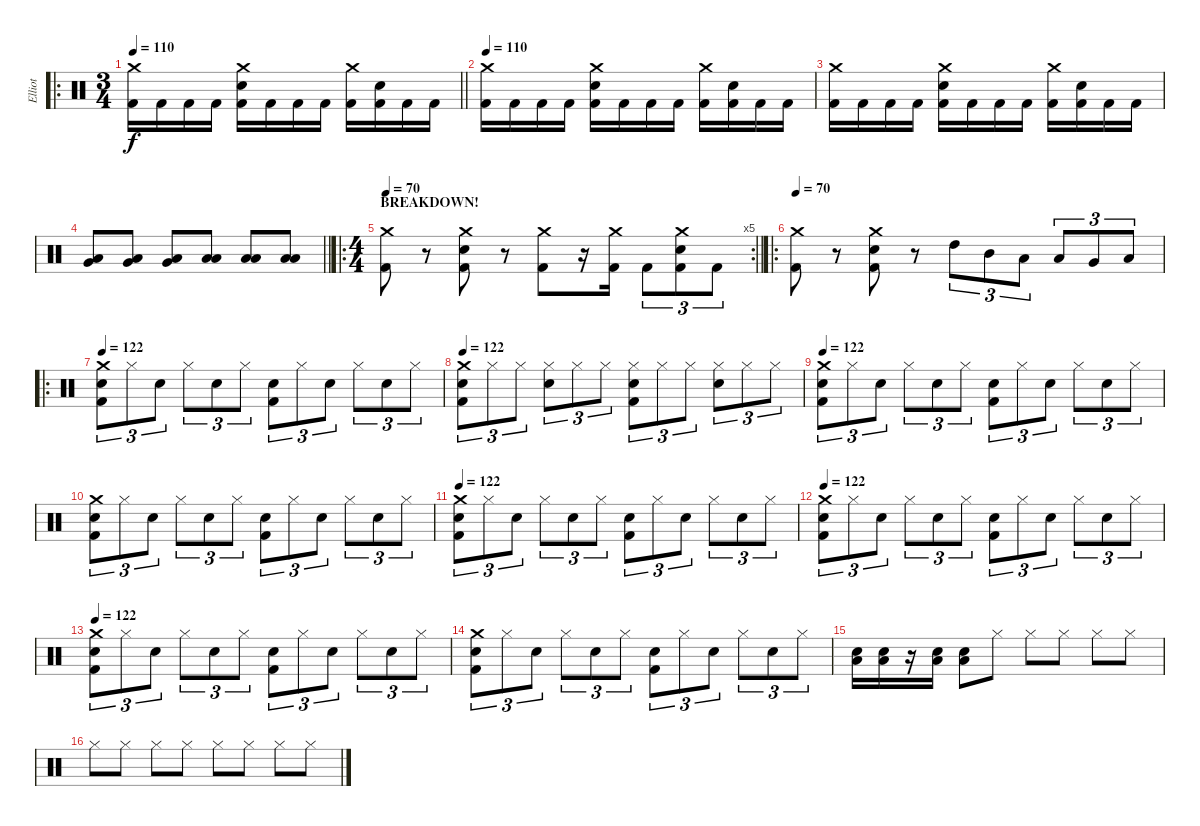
\track ("Elliot" "Elliot") {instrument percussion}
\staff {score}
\articulation defaults
\ro
\ts (3 4)
\section ("" "")
\tempo 110
\clef neutral
\barLineRight lightlight
\ks c
("Crash medium (hit)" "Kick (hit) 2").16{dy f} "Kick (hit) 2".16 "Kick (hit) 2".16 "Kick (hit) 2".16 ("Crash medium (hit)" "Electric Snare (hit)" "Kick (hit) 2").16 "Kick (hit) 2".16 "Kick (hit) 2".16 "Kick (hit) 2".16 ("Crash medium (hit)" "Kick (hit) 2").16 ("Electric Snare (hit)" "Kick (hit) 2").16 "Kick (hit) 2".16 "Kick (hit) 2".16 |
\tempo 110
("Crash medium (hit)" "Kick (hit) 2").16 "Kick (hit) 2".16 "Kick (hit) 2".16 "Kick (hit) 2".16 ("Crash medium (hit)" "Electric Snare (hit)" "Kick (hit) 2").16 "Kick (hit) 2".16 "Kick (hit) 2".16 "Kick (hit) 2".16 ("Crash medium (hit)" "Kick (hit) 2").16 ("Electric Snare (hit)" "Kick (hit) 2").16 "Kick (hit) 2".16 "Kick (hit) 2".16 |
("Crash medium (hit)" "Kick (hit) 2").16 "Kick (hit) 2".16 "Kick (hit) 2".16 "Kick (hit) 2".16 ("Crash medium (hit)" "Electric Snare (hit)" "Kick (hit) 2").16 "Kick (hit) 2".16 "Kick (hit) 2".16 "Kick (hit) 2".16 ("Crash medium (hit)" "Kick (hit) 2").16 ("Electric Snare (hit)" "Kick (hit) 2").16 "Kick (hit) 2".16 "Kick (hit) 2".16 |
\barLineRight lightlight
("Low Tom (hit)" "Very Low Tom (hit)").8 ("Low Tom (hit)" "Very Low Tom (hit)").8 ("Low Tom (hit)" "Very Low Tom (hit)").8 ("Low Tom (hit)" "Low Floor Tom (hit)").8 ("Low Tom (hit)" "Low Floor Tom (hit)").8 ("Low Tom (hit)" "Low Floor Tom (hit)").8 |
\ro
\rc 5
\ts (4 4)
\section ("" "BREAKDOWN!")
\tempo 70
\barLineRight lightlight
("Crash medium (hit)" "Kick (hit) 2").8 r.8 ("Crash medium (hit)" "Electric Snare (hit)" "Kick (hit) 2").8 r.8 ("Crash medium (hit)" "Kick (hit) 2").8 r.16 ("Crash medium (hit)" "Kick (hit) 2").16 "Kick (hit) 2".8{tu (3 2)} ("Crash medium (hit)" "Electric Snare (hit)" "Kick (hit) 2").8{tu (3 2)} "Kick (hit) 2".8{tu (3 2)} |
\ro
\tempo 70
("Crash medium (hit)" "Kick (hit) 2").8 r.8 ("Crash medium (hit)" "Electric Snare (hit)" "Kick (hit) 2").8 r.8 "High Tom (hit)".8{tu (3 2)} "Mid Tom (hit)".8{tu (3 2)} "Low Tom (hit)".8{tu (3 2)} "Low Floor Tom (hit)".8{tu (3 2)} "Very Low Tom (hit)".8{tu (3 2)} "Low Tom (hit)".8{tu (3 2)} |
\ro
\tempo 122
("Crash medium (hit)" "Electric Snare (hit)" "Kick (hit) 2").8{tu (3 2)} "Hi-Hat (closed)".8{tu (3 2)} "Electric Snare (hit)".8{tu (3 2)} "Hi-Hat (closed)".8{tu (3 2)} "Electric Snare (hit)".8{tu (3 2)} "Hi-Hat (closed)".8{tu (3 2)} ("Electric Snare (hit)" "Kick (hit) 2").8{tu (3 2)} "Hi-Hat (closed)".8{tu (3 2)} "Electric Snare (hit)".8{tu (3 2)} "Hi-Hat (closed)".8{tu (3 2)} "Electric Snare (hit)".8{tu (3 2)} "Hi-Hat (closed)".8{tu (3 2)} |
\tempo 122
("Crash medium (hit)" "Electric Snare (hit)" "Kick (hit) 2").8{tu (3 2)} "Hi-Hat (closed)".8{tu (3 2)} "Hi-Hat (closed)".8{tu (3 2)} ("Hi-Hat (closed)" "Electric Snare (hit)").8{tu (3 2)} "Hi-Hat (closed)".8{tu (3 2)} "Hi-Hat (closed)".8{tu (3 2)} ("Hi-Hat (closed)" "Electric Snare (hit)" "Kick (hit) 2").8{tu (3 2)} "Hi-Hat (closed)".8{tu (3 2)} "Hi-Hat (closed)".8{tu (3 2)} ("Hi-Hat (closed)" "Electric Snare (hit)").8{tu (3 2)} "Hi-Hat (closed)".8{tu (3 2)} "Hi-Hat (closed)".8{tu (3 2)} |
\tempo 122
("Crash medium (hit)" "Electric Snare (hit)" "Kick (hit) 2").8{tu (3 2)} "Hi-Hat (closed)".8{tu (3 2)} "Electric Snare (hit)".8{tu (3 2)} "Hi-Hat (closed)".8{tu (3 2)} "Electric Snare (hit)".8{tu (3 2)} "Hi-Hat (closed)".8{tu (3 2)} ("Electric Snare (hit)" "Kick (hit) 2").8{tu (3 2)} "Hi-Hat (closed)".8{tu (3 2)} "Electric Snare (hit)".8{tu (3 2)} "Hi-Hat (closed)".8{tu (3 2)} "Electric Snare (hit)".8{tu (3 2)} "Hi-Hat (closed)".8{tu (3 2)} |
("Crash medium (hit)" "Electric Snare (hit)" "Kick (hit) 2").8{tu (3 2)} "Hi-Hat (closed)".8{tu (3 2)} "Electric Snare (hit)".8{tu (3 2)} "Hi-Hat (closed)".8{tu (3 2)} "Electric Snare (hit)".8{tu (3 2)} "Hi-Hat (closed)".8{tu (3 2)} ("Electric Snare (hit)" "Kick (hit) 2").8{tu (3 2)} "Hi-Hat (closed)".8{tu (3 2)} "Electric Snare (hit)".8{tu (3 2)} "Hi-Hat (closed)".8{tu (3 2)} "Electric Snare (hit)".8{tu (3 2)} "Hi-Hat (closed)".8{tu (3 2)} |
\tempo 122
("Crash medium (hit)" "Electric Snare (hit)" "Kick (hit) 2").8{tu (3 2)} "Hi-Hat (closed)".8{tu (3 2)} "Electric Snare (hit)".8{tu (3 2)} "Hi-Hat (closed)".8{tu (3 2)} "Electric Snare (hit)".8{tu (3 2)} "Hi-Hat (closed)".8{tu (3 2)} ("Electric Snare (hit)" "Kick (hit) 2").8{tu (3 2)} "Hi-Hat (closed)".8{tu (3 2)} "Electric Snare (hit)".8{tu (3 2)} "Hi-Hat (closed)".8{tu (3 2)} "Electric Snare (hit)".8{tu (3 2)} "Hi-Hat (closed)".8{tu (3 2)} |
\tempo 122
("Crash medium (hit)" "Electric Snare (hit)" "Kick (hit) 2").8{tu (3 2)} "Hi-Hat (closed)".8{tu (3 2)} "Electric Snare (hit)".8{tu (3 2)} "Hi-Hat (closed)".8{tu (3 2)} "Electric Snare (hit)".8{tu (3 2)} "Hi-Hat (closed)".8{tu (3 2)} ("Electric Snare (hit)" "Kick (hit) 2").8{tu (3 2)} "Hi-Hat (closed)".8{tu (3 2)} "Electric Snare (hit)".8{tu (3 2)} "Hi-Hat (closed)".8{tu (3 2)} "Electric Snare (hit)".8{tu (3 2)} "Hi-Hat (closed)".8{tu (3 2)} |
\tempo 122
("Crash medium (hit)" "Electric Snare (hit)" "Kick (hit) 2").8{tu (3 2)} "Hi-Hat (closed)".8{tu (3 2)} "Electric Snare (hit)".8{tu (3 2)} "Hi-Hat (closed)".8{tu (3 2)} "Electric Snare (hit)".8{tu (3 2)} "Hi-Hat (closed)".8{tu (3 2)} ("Electric Snare (hit)" "Kick (hit) 2").8{tu (3 2)} "Hi-Hat (closed)".8{tu (3 2)} "Electric Snare (hit)".8{tu (3 2)} "Hi-Hat (closed)".8{tu (3 2)} "Electric Snare (hit)".8{tu (3 2)} "Hi-Hat (closed)".8{tu (3 2)} |
("Crash medium (hit)" "Electric Snare (hit)" "Kick (hit) 2").8{tu (3 2)} "Hi-Hat (closed)".8{tu (3 2)} "Electric Snare (hit)".8{tu (3 2)} "Hi-Hat (closed)".8{tu (3 2)} "Electric Snare (hit)".8{tu (3 2)} "Hi-Hat (closed)".8{tu (3 2)} ("Electric Snare (hit)" "Kick (hit) 2").8{tu (3 2)} "Hi-Hat (closed)".8{tu (3 2)} "Electric Snare (hit)".8{tu (3 2)} "Hi-Hat (closed)".8{tu (3 2)} "Electric Snare (hit)".8{tu (3 2)} "Hi-Hat (closed)".8{tu (3 2)} |
("Electric Snare (hit)" "Low Floor Tom (hit)").16 ("Electric Snare (hit)" "Low Floor Tom (hit)").16 r.16 ("Electric Snare (hit)" "Low Floor Tom (hit)").16 ("Electric Snare (hit)" "Low Floor Tom (hit)").8 "Hi-Hat (closed)".8 "Hi-Hat (closed)".8 "Hi-Hat (closed)".8 "Hi-Hat (closed)".8 "Hi-Hat (closed)".8 |
"Hi-Hat (closed)".8 "Hi-Hat (closed)".8 "Hi-Hat (closed)".8 "Hi-Hat (closed)".8 "Hi-Hat (closed)".8 "Hi-Hat (closed)".8 "Hi-Hat (closed)".8 "Hi-Hat (closed)".8
